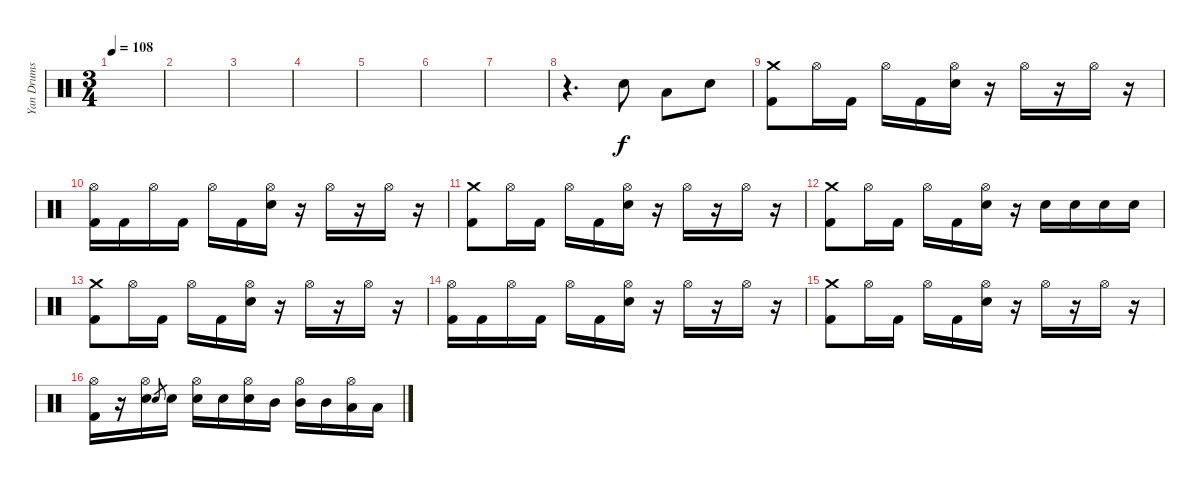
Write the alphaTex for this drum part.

\track ("Yan Drums" "Yan Drums") {instrument percussion}
\staff {score}
\articulation defaults
\ts (3 4)
\tempo 108
\clef neutral
\ks c
|
|
|
|
|
|
|
r.4{d} "Electric Snare (hit)".8 "Low Tom (hit)".8 "Electric Snare (hit)".8 |
("Kick (hit) 2" "Crash medium (hit)").8 "Hi-Hat (open)".16 "Kick (hit) 2".16 "Hi-Hat (open)".16 "Kick (hit) 2".16 ("Electric Snare (hit)" "Hi-Hat (open)").16 r.16 "Hi-Hat (open)".16 r.16 "Hi-Hat (open)".16 r.16 |
("Kick (hit) 2" "Hi-Hat (open)").16 "Kick (hit) 2".16 "Hi-Hat (open)".16 "Kick (hit) 2".16 "Hi-Hat (open)".16 "Kick (hit) 2".16 ("Electric Snare (hit)" "Hi-Hat (open)").16 r.16 "Hi-Hat (open)".16 r.16 "Hi-Hat (open)".16 r.16 |
("Kick (hit) 2" "Crash medium (hit)").8 "Hi-Hat (open)".16 "Kick (hit) 2".16 "Hi-Hat (open)".16 "Kick (hit) 2".16 ("Electric Snare (hit)" "Hi-Hat (open)").16 r.16 "Hi-Hat (open)".16 r.16 "Hi-Hat (open)".16 r.16 |
("Kick (hit) 2" "Crash medium (hit)").8 "Hi-Hat (open)".16 "Kick (hit) 2".16 "Hi-Hat (open)".16 "Kick (hit) 2".16 ("Electric Snare (hit)" "Hi-Hat (open)").16 r.16 "Electric Snare (hit)".16 "Electric Snare (hit)".16 "Electric Snare (hit)".16 "Electric Snare (hit)".16 |
("Kick (hit) 2" "Crash medium (hit)").8 "Hi-Hat (open)".16 "Kick (hit) 2".16 "Hi-Hat (open)".16 "Kick (hit) 2".16 ("Electric Snare (hit)" "Hi-Hat (open)").16 r.16 "Hi-Hat (open)".16 r.16 "Hi-Hat (open)".16 r.16 |
("Kick (hit) 2" "Hi-Hat (open)").16 "Kick (hit) 2".16 "Hi-Hat (open)".16 "Kick (hit) 2".16 "Hi-Hat (open)".16 "Kick (hit) 2".16 ("Electric Snare (hit)" "Hi-Hat (open)").16 r.16 "Hi-Hat (open)".16 r.16 "Hi-Hat (open)".16 r.16 |
("Kick (hit) 2" "Crash medium (hit)").8 "Hi-Hat (open)".16 "Kick (hit) 2".16 "Hi-Hat (open)".16 "Kick (hit) 2".16 ("Electric Snare (hit)" "Hi-Hat (open)").16 r.16 "Hi-Hat (open)".16 r.16 "Hi-Hat (open)".16 r.16 |
("Kick (hit) 2" "Hi-Hat (open)").16 r.16 ("Electric Snare (hit)" "Hi-Hat (open)").16 "Electric Snare (hit)".8{gr} "Electric Snare (hit)".16 ("Electric Snare (hit)" "Hi-Hat (open)").16 "Electric Snare (hit)".16 ("Electric Snare (hit)" "Hi-Hat (open)").16 "Mid Tom (hit)".16 ("Mid Tom (hit)" "Hi-Hat (open)").16 "Mid Tom (hit)".16 ("Low Tom (hit)" "Hi-Hat (open)").16 "Low Tom (hit)".16
